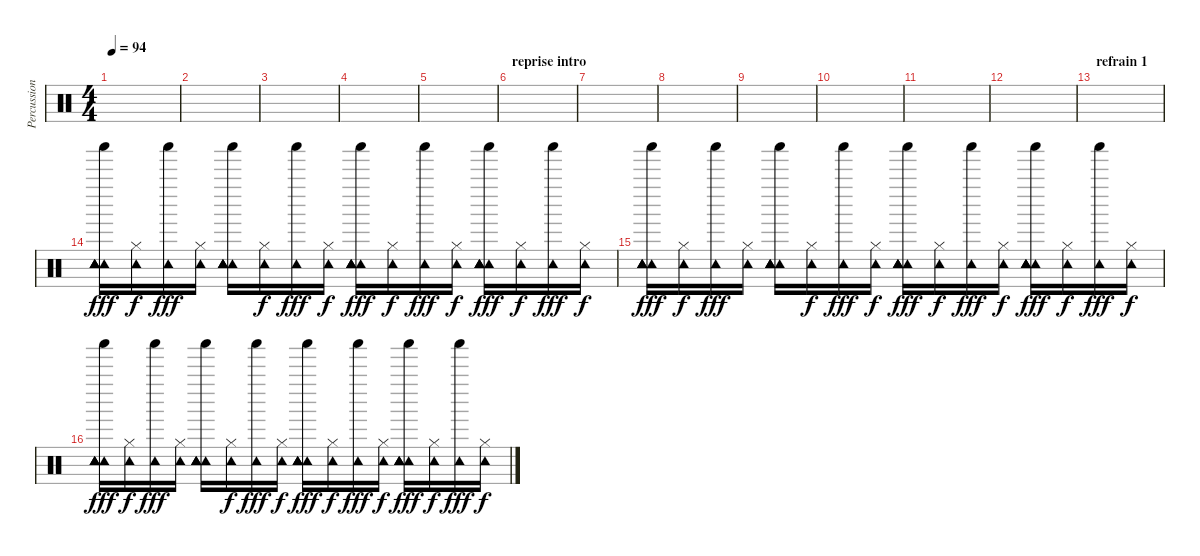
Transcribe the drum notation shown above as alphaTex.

\track ("Percussions" "Percussion") {instrument percussion}
\staff {score}
\articulation defaults
\ts (4 4)
\tempo 94
\clef neutral
\ks c
|
|
|
|
|
\section ("" "reprise intro")
|
|
|
|
|
|
|
\section ("" "refrain 1")
|
("Shaker (hit)" "Tambourine (hit)" "Tambourine (hit)" "Tambourine (hit)" "Tambourine (hit)" "Tambourine (hit)").16{dy fff} ("Hi-Hat (closed)" "Tambourine (hit)").16{dy f} ("Shaker (hit)" "Tambourine (hit)").16{dy fff} ("Hi-Hat (closed)" "Tambourine (hit)").16 ("Shaker (hit)" "Tambourine (hit)" "Tambourine (hit)" "Tambourine (hit)" "Tambourine (hit)" "Tambourine (hit)").16 ("Hi-Hat (closed)" "Tambourine (hit)").16{dy f} ("Shaker (hit)" "Tambourine (hit)").16{dy fff} ("Hi-Hat (closed)" "Tambourine (hit)").16{dy f} ("Shaker (hit)" "Tambourine (hit)" "Tambourine (hit)" "Tambourine (hit)" "Tambourine (hit)" "Tambourine (hit)").16{dy fff} ("Hi-Hat (closed)" "Tambourine (hit)").16{dy f} ("Shaker (hit)" "Tambourine (hit)").16{dy fff} ("Hi-Hat (closed)" "Tambourine (hit)").16{dy f} ("Shaker (hit)" "Tambourine (hit)" "Tambourine (hit)" "Tambourine (hit)" "Tambourine (hit)" "Tambourine (hit)").16{dy fff} ("Hi-Hat (closed)" "Tambourine (hit)").16{dy f} ("Shaker (hit)" "Tambourine (hit)").16{dy fff} ("Hi-Hat (closed)" "Tambourine (hit)").16{dy f} |
("Shaker (hit)" "Tambourine (hit)" "Tambourine (hit)" "Tambourine (hit)" "Tambourine (hit)" "Tambourine (hit)").16{dy fff} ("Hi-Hat (closed)" "Tambourine (hit)").16{dy f} ("Shaker (hit)" "Tambourine (hit)").16{dy fff} ("Hi-Hat (closed)" "Tambourine (hit)").16 ("Shaker (hit)" "Tambourine (hit)" "Tambourine (hit)" "Tambourine (hit)" "Tambourine (hit)" "Tambourine (hit)").16 ("Hi-Hat (closed)" "Tambourine (hit)").16{dy f} ("Shaker (hit)" "Tambourine (hit)").16{dy fff} ("Hi-Hat (closed)" "Tambourine (hit)").16{dy f} ("Shaker (hit)" "Tambourine (hit)" "Tambourine (hit)" "Tambourine (hit)" "Tambourine (hit)" "Tambourine (hit)").16{dy fff} ("Hi-Hat (closed)" "Tambourine (hit)").16{dy f} ("Shaker (hit)" "Tambourine (hit)").16{dy fff} ("Hi-Hat (closed)" "Tambourine (hit)").16{dy f} ("Shaker (hit)" "Tambourine (hit)" "Tambourine (hit)" "Tambourine (hit)" "Tambourine (hit)" "Tambourine (hit)").16{dy fff} ("Hi-Hat (closed)" "Tambourine (hit)").16{dy f} ("Shaker (hit)" "Tambourine (hit)").16{dy fff} ("Hi-Hat (closed)" "Tambourine (hit)").16{dy f} |
("Shaker (hit)" "Tambourine (hit)" "Tambourine (hit)" "Tambourine (hit)" "Tambourine (hit)" "Tambourine (hit)").16{dy fff} ("Hi-Hat (closed)" "Tambourine (hit)").16{dy f} ("Shaker (hit)" "Tambourine (hit)").16{dy fff} ("Hi-Hat (closed)" "Tambourine (hit)").16 ("Shaker (hit)" "Tambourine (hit)" "Tambourine (hit)" "Tambourine (hit)" "Tambourine (hit)" "Tambourine (hit)").16 ("Hi-Hat (closed)" "Tambourine (hit)").16{dy f} ("Shaker (hit)" "Tambourine (hit)").16{dy fff} ("Hi-Hat (closed)" "Tambourine (hit)").16{dy f} ("Shaker (hit)" "Tambourine (hit)" "Tambourine (hit)" "Tambourine (hit)" "Tambourine (hit)" "Tambourine (hit)").16{dy fff} ("Hi-Hat (closed)" "Tambourine (hit)").16{dy f} ("Shaker (hit)" "Tambourine (hit)").16{dy fff} ("Hi-Hat (closed)" "Tambourine (hit)").16{dy f} ("Shaker (hit)" "Tambourine (hit)" "Tambourine (hit)" "Tambourine (hit)" "Tambourine (hit)" "Tambourine (hit)").16{dy fff} ("Hi-Hat (closed)" "Tambourine (hit)").16{dy f} ("Shaker (hit)" "Tambourine (hit)").16{dy fff} ("Hi-Hat (closed)" "Tambourine (hit)").16{dy f}
